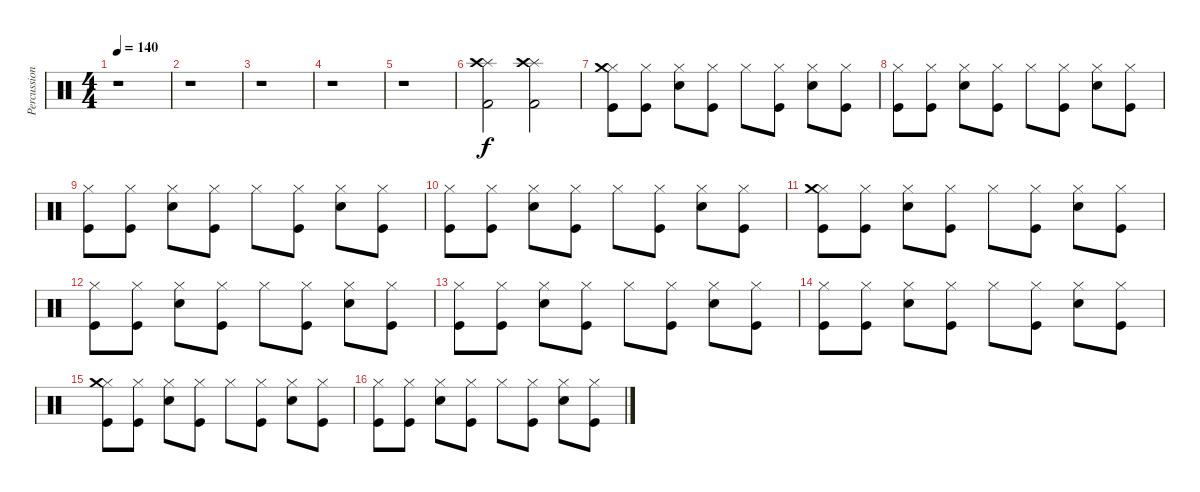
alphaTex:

\track ("Percussion" "Percussion") {instrument percussion}
\staff {score}
\articulation defaults
\ts (4 4)
\tempo 140
\clef neutral
\ks c
r.1{dy f} |
r.1 |
r.1 |
r.1 |
r.1 |
("Splash (hit)" "Crash high (hit)" "Kick (hit) 2").2 ("Splash (hit)" "Crash high (hit)" "Kick (hit) 2").2 |
("Kick (hit)" "Hi-Hat (closed)" "Crash medium (hit)").8 ("Kick (hit)" "Hi-Hat (closed)").8 ("Electric Snare (hit)" "Hi-Hat (closed)").8 ("Kick (hit)" "Hi-Hat (closed)").8 "Hi-Hat (closed)".8 ("Kick (hit)" "Hi-Hat (closed)").8 ("Electric Snare (hit)" "Hi-Hat (closed)").8 ("Kick (hit)" "Hi-Hat (closed)").8 |
("Kick (hit)" "Hi-Hat (closed)").8 ("Kick (hit)" "Hi-Hat (closed)").8 ("Electric Snare (hit)" "Hi-Hat (closed)").8 ("Kick (hit)" "Hi-Hat (closed)").8 "Hi-Hat (closed)".8 ("Kick (hit)" "Hi-Hat (closed)").8 ("Electric Snare (hit)" "Hi-Hat (closed)").8 ("Kick (hit)" "Hi-Hat (closed)").8 |
("Kick (hit)" "Hi-Hat (closed)").8 ("Kick (hit)" "Hi-Hat (closed)").8 ("Electric Snare (hit)" "Hi-Hat (closed)").8 ("Kick (hit)" "Hi-Hat (closed)").8 "Hi-Hat (closed)".8 ("Kick (hit)" "Hi-Hat (closed)").8 ("Electric Snare (hit)" "Hi-Hat (closed)").8 ("Kick (hit)" "Hi-Hat (closed)").8 |
("Kick (hit)" "Hi-Hat (closed)").8 ("Kick (hit)" "Hi-Hat (closed)").8 ("Electric Snare (hit)" "Hi-Hat (closed)").8 ("Kick (hit)" "Hi-Hat (closed)").8 "Hi-Hat (closed)".8 ("Kick (hit)" "Hi-Hat (closed)").8 ("Electric Snare (hit)" "Hi-Hat (closed)").8 ("Kick (hit)" "Hi-Hat (closed)").8 |
("Kick (hit)" "Hi-Hat (closed)" "Crash medium (hit)").8 ("Kick (hit)" "Hi-Hat (closed)").8 ("Electric Snare (hit)" "Hi-Hat (closed)").8 ("Kick (hit)" "Hi-Hat (closed)").8 "Hi-Hat (closed)".8 ("Kick (hit)" "Hi-Hat (closed)").8 ("Electric Snare (hit)" "Hi-Hat (closed)").8 ("Kick (hit)" "Hi-Hat (closed)").8 |
("Kick (hit)" "Hi-Hat (closed)").8 ("Kick (hit)" "Hi-Hat (closed)").8 ("Electric Snare (hit)" "Hi-Hat (closed)").8 ("Kick (hit)" "Hi-Hat (closed)").8 "Hi-Hat (closed)".8 ("Kick (hit)" "Hi-Hat (closed)").8 ("Electric Snare (hit)" "Hi-Hat (closed)").8 ("Kick (hit)" "Hi-Hat (closed)").8 |
("Kick (hit)" "Hi-Hat (closed)").8 ("Kick (hit)" "Hi-Hat (closed)").8 ("Electric Snare (hit)" "Hi-Hat (closed)").8 ("Kick (hit)" "Hi-Hat (closed)").8 "Hi-Hat (closed)".8 ("Kick (hit)" "Hi-Hat (closed)").8 ("Electric Snare (hit)" "Hi-Hat (closed)").8 ("Kick (hit)" "Hi-Hat (closed)").8 |
("Kick (hit)" "Hi-Hat (closed)").8 ("Kick (hit)" "Hi-Hat (closed)").8 ("Electric Snare (hit)" "Hi-Hat (closed)").8 ("Kick (hit)" "Hi-Hat (closed)").8 "Hi-Hat (closed)".8 ("Kick (hit)" "Hi-Hat (closed)").8 ("Electric Snare (hit)" "Hi-Hat (closed)").8 ("Kick (hit)" "Hi-Hat (closed)").8 |
("Kick (hit)" "Hi-Hat (closed)" "Crash medium (hit)").8 ("Kick (hit)" "Hi-Hat (closed)").8 ("Electric Snare (hit)" "Hi-Hat (closed)").8 ("Kick (hit)" "Hi-Hat (closed)").8 "Hi-Hat (closed)".8 ("Kick (hit)" "Hi-Hat (closed)").8 ("Electric Snare (hit)" "Hi-Hat (closed)").8 ("Kick (hit)" "Hi-Hat (closed)").8 |
("Kick (hit)" "Hi-Hat (closed)").8 ("Kick (hit)" "Hi-Hat (closed)").8 ("Electric Snare (hit)" "Hi-Hat (closed)").8 ("Kick (hit)" "Hi-Hat (closed)").8 "Hi-Hat (closed)".8 ("Kick (hit)" "Hi-Hat (closed)").8 ("Electric Snare (hit)" "Hi-Hat (closed)").8 ("Kick (hit)" "Hi-Hat (closed)").8
